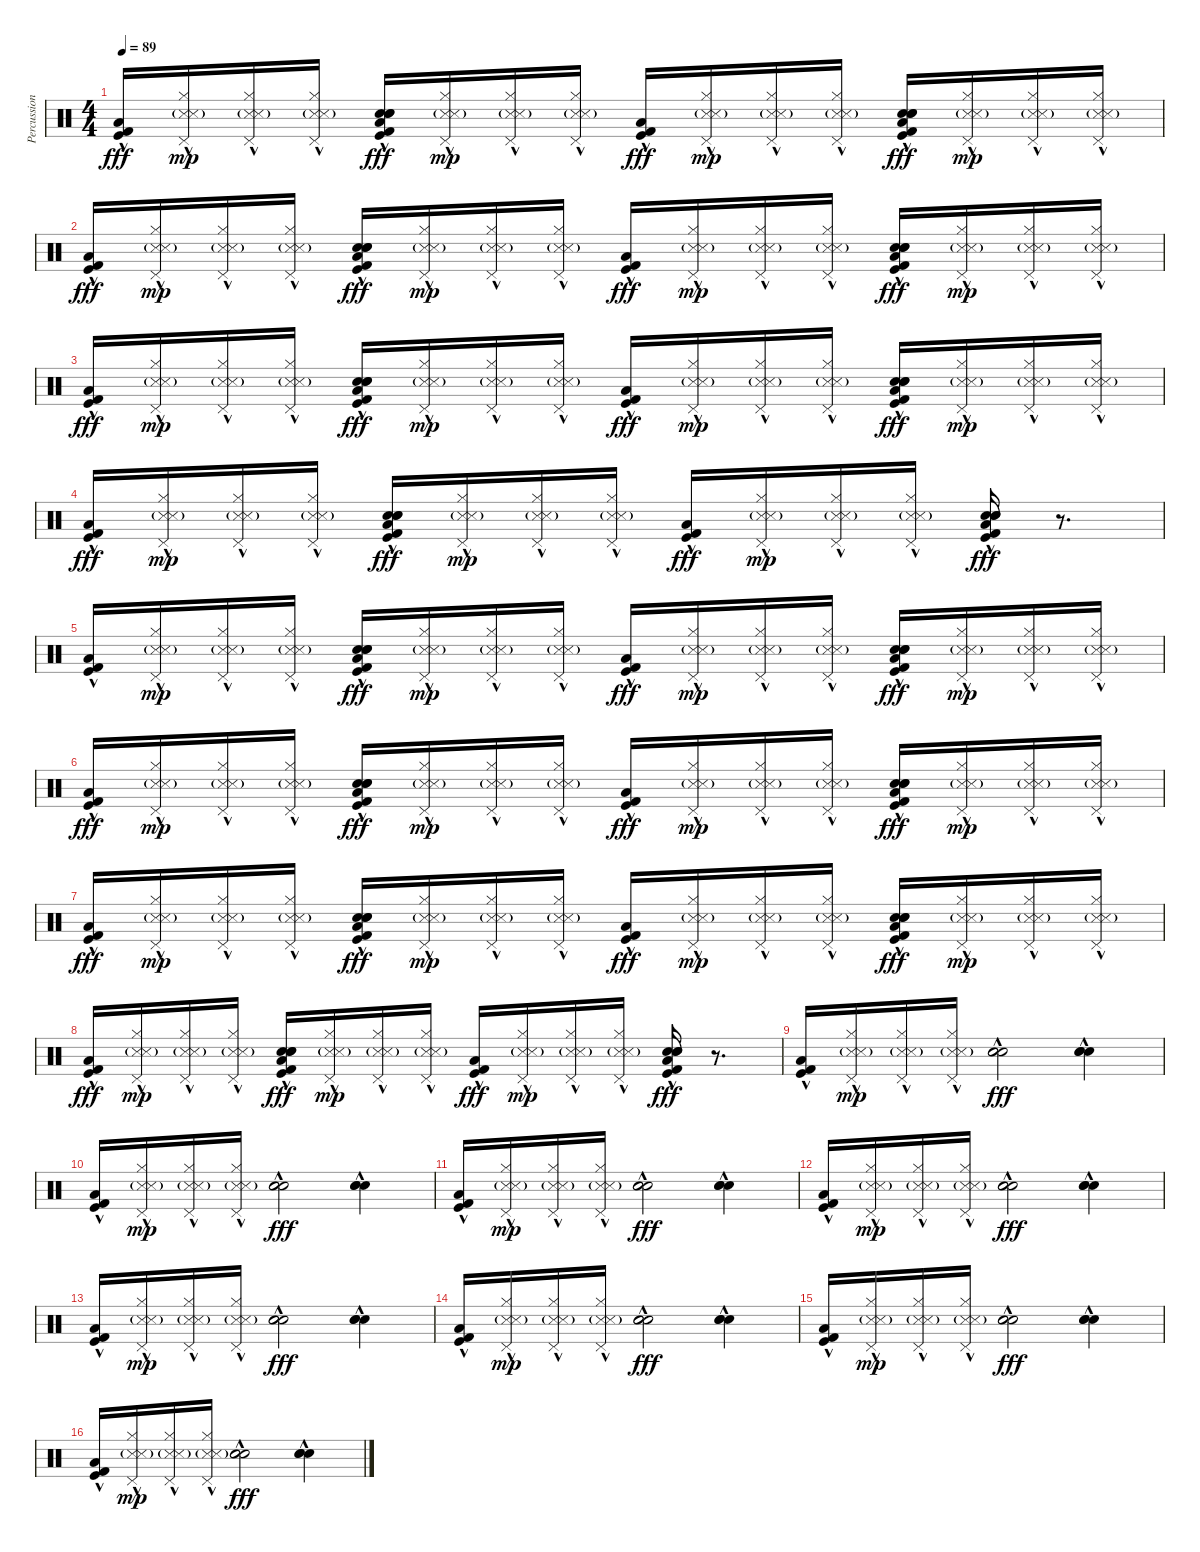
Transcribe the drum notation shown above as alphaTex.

\track ("Percussion" "Percussion") {instrument percussion}
\staff {score}
\articulation defaults
\ts (4 4)
\tempo 89
\clef neutral
\ks c
("Kick (hit) 2"{hac} "Kick (hit)"{hac} "Low Floor Tom (hit)"{hac}).16{dy fff} ("Pedal Hi-Hat (hit)"{hac} "Hi-Hat (closed)" "Snare (side stick) 3"{g} "Metronome (hit)"{g}).16{dy mp} ("Pedal Hi-Hat (hit)"{hac} "Hi-Hat (closed)" "Snare (side stick) 3"{g} "Metronome (hit)"{g}).16 ("Pedal Hi-Hat (hit)"{hac} "Hi-Hat (closed)" "Snare (side stick) 3"{g} "Metronome (hit)"{g}).16 ("Hand Clap (hit)"{hac} "Hand Clap (hit)"{hac} "Hand Clap (hit)"{hac} "Low Floor Tom (hit)"{hac} "Kick (hit)"{hac} "Kick (hit) 2"{hac}).16{dy fff} ("Pedal Hi-Hat (hit)"{hac} "Hi-Hat (closed)"{hac} "Snare (side stick) 3"{g} "Metronome (hit)"{g}).16{dy mp} ("Pedal Hi-Hat (hit)"{hac} "Hi-Hat (closed)"{hac} "Snare (side stick) 3"{g} "Metronome (hit)"{g}).16 ("Pedal Hi-Hat (hit)"{hac} "Hi-Hat (closed)"{hac} "Snare (side stick) 3"{g} "Metronome (hit)"{g}).16 ("Kick (hit) 2"{hac} "Kick (hit)"{hac} "Low Floor Tom (hit)"{hac}).16{dy fff} ("Pedal Hi-Hat (hit)"{hac} "Hi-Hat (closed)" "Snare (side stick) 3"{g} "Metronome (hit)"{g}).16{dy mp} ("Pedal Hi-Hat (hit)"{hac} "Hi-Hat (closed)" "Snare (side stick) 3"{g} "Metronome (hit)"{g}).16 ("Pedal Hi-Hat (hit)"{hac} "Hi-Hat (closed)" "Snare (side stick) 3"{g} "Metronome (hit)"{g}).16 ("Hand Clap (hit)"{hac} "Hand Clap (hit)"{hac} "Hand Clap (hit)"{hac} "Low Floor Tom (hit)"{hac} "Kick (hit)"{hac} "Kick (hit) 2"{hac}).16{dy fff} ("Pedal Hi-Hat (hit)"{hac} "Hi-Hat (closed)"{hac} "Snare (side stick) 3"{g} "Metronome (hit)"{g}).16{dy mp} ("Pedal Hi-Hat (hit)"{hac} "Hi-Hat (closed)"{hac} "Snare (side stick) 3"{g} "Metronome (hit)"{g}).16 ("Pedal Hi-Hat (hit)"{hac} "Hi-Hat (closed)"{hac} "Snare (side stick) 3"{g} "Metronome (hit)"{g}).16 |
("Kick (hit) 2"{hac} "Kick (hit)"{hac} "Low Floor Tom (hit)"{hac}).16{dy fff} ("Pedal Hi-Hat (hit)"{hac} "Hi-Hat (closed)" "Snare (side stick) 3"{g} "Metronome (hit)"{g}).16{dy mp} ("Pedal Hi-Hat (hit)"{hac} "Hi-Hat (closed)" "Snare (side stick) 3"{g} "Metronome (hit)"{g}).16 ("Pedal Hi-Hat (hit)"{hac} "Hi-Hat (closed)" "Snare (side stick) 3"{g} "Metronome (hit)"{g}).16 ("Hand Clap (hit)"{hac} "Hand Clap (hit)"{hac} "Hand Clap (hit)"{hac} "Low Floor Tom (hit)"{hac} "Kick (hit)"{hac} "Kick (hit) 2"{hac}).16{dy fff} ("Pedal Hi-Hat (hit)"{hac} "Hi-Hat (closed)"{hac} "Snare (side stick) 3"{g} "Metronome (hit)"{g}).16{dy mp} ("Pedal Hi-Hat (hit)"{hac} "Hi-Hat (closed)"{hac} "Snare (side stick) 3"{g} "Metronome (hit)"{g}).16 ("Pedal Hi-Hat (hit)"{hac} "Hi-Hat (closed)"{hac} "Snare (side stick) 3"{g} "Metronome (hit)"{g}).16 ("Kick (hit) 2"{hac} "Kick (hit)"{hac} "Low Floor Tom (hit)"{hac}).16{dy fff} ("Pedal Hi-Hat (hit)"{hac} "Hi-Hat (closed)" "Snare (side stick) 3"{g} "Metronome (hit)"{g}).16{dy mp} ("Pedal Hi-Hat (hit)"{hac} "Hi-Hat (closed)" "Snare (side stick) 3"{g} "Metronome (hit)"{g}).16 ("Pedal Hi-Hat (hit)"{hac} "Hi-Hat (closed)" "Snare (side stick) 3"{g} "Metronome (hit)"{g}).16 ("Hand Clap (hit)"{hac} "Hand Clap (hit)"{hac} "Hand Clap (hit)"{hac} "Low Floor Tom (hit)"{hac} "Kick (hit)"{hac} "Kick (hit) 2"{hac}).16{dy fff} ("Pedal Hi-Hat (hit)"{hac} "Hi-Hat (closed)"{hac} "Snare (side stick) 3"{g} "Metronome (hit)"{g}).16{dy mp} ("Pedal Hi-Hat (hit)"{hac} "Hi-Hat (closed)"{hac} "Snare (side stick) 3"{g} "Metronome (hit)"{g}).16 ("Pedal Hi-Hat (hit)"{hac} "Hi-Hat (closed)"{hac} "Snare (side stick) 3"{g} "Metronome (hit)"{g}).16 |
("Kick (hit) 2"{hac} "Kick (hit)"{hac} "Low Floor Tom (hit)"{hac}).16{dy fff} ("Pedal Hi-Hat (hit)"{hac} "Hi-Hat (closed)" "Snare (side stick) 3"{g} "Metronome (hit)"{g}).16{dy mp} ("Pedal Hi-Hat (hit)"{hac} "Hi-Hat (closed)" "Snare (side stick) 3"{g} "Metronome (hit)"{g}).16 ("Pedal Hi-Hat (hit)"{hac} "Hi-Hat (closed)" "Snare (side stick) 3"{g} "Metronome (hit)"{g}).16 ("Hand Clap (hit)"{hac} "Hand Clap (hit)"{hac} "Hand Clap (hit)"{hac} "Low Floor Tom (hit)"{hac} "Kick (hit)"{hac} "Kick (hit) 2"{hac}).16{dy fff} ("Pedal Hi-Hat (hit)"{hac} "Hi-Hat (closed)"{hac} "Snare (side stick) 3"{g} "Metronome (hit)"{g}).16{dy mp} ("Pedal Hi-Hat (hit)"{hac} "Hi-Hat (closed)"{hac} "Snare (side stick) 3"{g} "Metronome (hit)"{g}).16 ("Pedal Hi-Hat (hit)"{hac} "Hi-Hat (closed)"{hac} "Snare (side stick) 3"{g} "Metronome (hit)"{g}).16 ("Kick (hit) 2"{hac} "Kick (hit)"{hac} "Low Floor Tom (hit)"{hac}).16{dy fff} ("Pedal Hi-Hat (hit)"{hac} "Hi-Hat (closed)" "Snare (side stick) 3"{g} "Metronome (hit)"{g}).16{dy mp} ("Pedal Hi-Hat (hit)"{hac} "Hi-Hat (closed)" "Snare (side stick) 3"{g} "Metronome (hit)"{g}).16 ("Pedal Hi-Hat (hit)"{hac} "Hi-Hat (closed)" "Snare (side stick) 3"{g} "Metronome (hit)"{g}).16 ("Hand Clap (hit)"{hac} "Hand Clap (hit)"{hac} "Hand Clap (hit)"{hac} "Low Floor Tom (hit)"{hac} "Kick (hit)"{hac} "Kick (hit) 2"{hac}).16{dy fff} ("Pedal Hi-Hat (hit)"{hac} "Hi-Hat (closed)"{hac} "Snare (side stick) 3"{g} "Metronome (hit)"{g}).16{dy mp} ("Pedal Hi-Hat (hit)"{hac} "Hi-Hat (closed)"{hac} "Snare (side stick) 3"{g} "Metronome (hit)"{g}).16 ("Pedal Hi-Hat (hit)"{hac} "Hi-Hat (closed)"{hac} "Snare (side stick) 3"{g} "Metronome (hit)"{g}).16 |
("Kick (hit) 2"{hac} "Kick (hit)"{hac} "Low Floor Tom (hit)"{hac}).16{dy fff} ("Pedal Hi-Hat (hit)"{hac} "Hi-Hat (closed)" "Snare (side stick) 3"{g} "Metronome (hit)"{g}).16{dy mp} ("Pedal Hi-Hat (hit)"{hac} "Hi-Hat (closed)" "Snare (side stick) 3"{g} "Metronome (hit)"{g}).16 ("Pedal Hi-Hat (hit)"{hac} "Hi-Hat (closed)" "Snare (side stick) 3"{g} "Metronome (hit)"{g}).16 ("Hand Clap (hit)"{hac} "Hand Clap (hit)"{hac} "Hand Clap (hit)"{hac} "Low Floor Tom (hit)"{hac} "Kick (hit)"{hac} "Kick (hit) 2"{hac}).16{dy fff} ("Pedal Hi-Hat (hit)"{hac} "Hi-Hat (closed)"{hac} "Snare (side stick) 3"{g} "Metronome (hit)"{g}).16{dy mp} ("Pedal Hi-Hat (hit)"{hac} "Hi-Hat (closed)"{hac} "Snare (side stick) 3"{g} "Metronome (hit)"{g}).16 ("Pedal Hi-Hat (hit)"{hac} "Hi-Hat (closed)"{hac} "Snare (side stick) 3"{g} "Metronome (hit)"{g}).16 ("Kick (hit) 2"{hac} "Kick (hit)"{hac} "Low Floor Tom (hit)"{hac}).16{dy fff} ("Pedal Hi-Hat (hit)"{hac} "Hi-Hat (closed)" "Snare (side stick) 3"{g} "Metronome (hit)"{g}).16{dy mp} ("Pedal Hi-Hat (hit)"{hac} "Hi-Hat (closed)" "Snare (side stick) 3"{g} "Metronome (hit)"{g}).16 ("Pedal Hi-Hat (hit)"{hac} "Hi-Hat (closed)" "Snare (side stick) 3"{g} "Metronome (hit)"{g}).16 ("Hand Clap (hit)"{hac} "Hand Clap (hit)"{hac} "Hand Clap (hit)"{hac} "Low Floor Tom (hit)"{hac} "Kick (hit)"{hac} "Kick (hit) 2"{hac}).16{dy fff} r.8{d} |
("Kick (hit) 2"{hac} "Kick (hit)"{hac} "Low Floor Tom (hit)"{hac}).16 ("Pedal Hi-Hat (hit)"{hac} "Hi-Hat (closed)" "Snare (side stick) 3"{g} "Metronome (hit)"{g}).16{dy mp} ("Pedal Hi-Hat (hit)"{hac} "Hi-Hat (closed)" "Snare (side stick) 3"{g} "Metronome (hit)"{g}).16 ("Pedal Hi-Hat (hit)"{hac} "Hi-Hat (closed)" "Snare (side stick) 3"{g} "Metronome (hit)"{g}).16 ("Hand Clap (hit)"{hac} "Hand Clap (hit)"{hac} "Hand Clap (hit)"{hac} "Low Floor Tom (hit)"{hac} "Kick (hit)"{hac} "Kick (hit) 2"{hac}).16{dy fff} ("Pedal Hi-Hat (hit)"{hac} "Hi-Hat (closed)"{hac} "Snare (side stick) 3"{g} "Metronome (hit)"{g}).16{dy mp} ("Pedal Hi-Hat (hit)"{hac} "Hi-Hat (closed)"{hac} "Snare (side stick) 3"{g} "Metronome (hit)"{g}).16 ("Pedal Hi-Hat (hit)"{hac} "Hi-Hat (closed)"{hac} "Snare (side stick) 3"{g} "Metronome (hit)"{g}).16 ("Kick (hit) 2"{hac} "Kick (hit)"{hac} "Low Floor Tom (hit)"{hac}).16{dy fff} ("Pedal Hi-Hat (hit)"{hac} "Hi-Hat (closed)" "Snare (side stick) 3"{g} "Metronome (hit)"{g}).16{dy mp} ("Pedal Hi-Hat (hit)"{hac} "Hi-Hat (closed)" "Snare (side stick) 3"{g} "Metronome (hit)"{g}).16 ("Pedal Hi-Hat (hit)"{hac} "Hi-Hat (closed)" "Snare (side stick) 3"{g} "Metronome (hit)"{g}).16 ("Hand Clap (hit)"{hac} "Hand Clap (hit)"{hac} "Hand Clap (hit)"{hac} "Low Floor Tom (hit)"{hac} "Kick (hit)"{hac} "Kick (hit) 2"{hac}).16{dy fff} ("Pedal Hi-Hat (hit)"{hac} "Hi-Hat (closed)"{hac} "Snare (side stick) 3"{g} "Metronome (hit)"{g}).16{dy mp} ("Pedal Hi-Hat (hit)"{hac} "Hi-Hat (closed)"{hac} "Snare (side stick) 3"{g} "Metronome (hit)"{g}).16 ("Pedal Hi-Hat (hit)"{hac} "Hi-Hat (closed)"{hac} "Snare (side stick) 3"{g} "Metronome (hit)"{g}).16 |
("Kick (hit) 2"{hac} "Kick (hit)"{hac} "Low Floor Tom (hit)"{hac}).16{dy fff} ("Pedal Hi-Hat (hit)"{hac} "Hi-Hat (closed)" "Snare (side stick) 3"{g} "Metronome (hit)"{g}).16{dy mp} ("Pedal Hi-Hat (hit)"{hac} "Hi-Hat (closed)" "Snare (side stick) 3"{g} "Metronome (hit)"{g}).16 ("Pedal Hi-Hat (hit)"{hac} "Hi-Hat (closed)" "Snare (side stick) 3"{g} "Metronome (hit)"{g}).16 ("Hand Clap (hit)"{hac} "Hand Clap (hit)"{hac} "Hand Clap (hit)"{hac} "Low Floor Tom (hit)"{hac} "Kick (hit)"{hac} "Kick (hit) 2"{hac}).16{dy fff} ("Pedal Hi-Hat (hit)"{hac} "Hi-Hat (closed)"{hac} "Snare (side stick) 3"{g} "Metronome (hit)"{g}).16{dy mp} ("Pedal Hi-Hat (hit)"{hac} "Hi-Hat (closed)"{hac} "Snare (side stick) 3"{g} "Metronome (hit)"{g}).16 ("Pedal Hi-Hat (hit)"{hac} "Hi-Hat (closed)"{hac} "Snare (side stick) 3"{g} "Metronome (hit)"{g}).16 ("Kick (hit) 2"{hac} "Kick (hit)"{hac} "Low Floor Tom (hit)"{hac}).16{dy fff} ("Pedal Hi-Hat (hit)"{hac} "Hi-Hat (closed)" "Snare (side stick) 3"{g} "Metronome (hit)"{g}).16{dy mp} ("Pedal Hi-Hat (hit)"{hac} "Hi-Hat (closed)" "Snare (side stick) 3"{g} "Metronome (hit)"{g}).16 ("Pedal Hi-Hat (hit)"{hac} "Hi-Hat (closed)" "Snare (side stick) 3"{g} "Metronome (hit)"{g}).16 ("Hand Clap (hit)"{hac} "Hand Clap (hit)"{hac} "Hand Clap (hit)"{hac} "Low Floor Tom (hit)"{hac} "Kick (hit)"{hac} "Kick (hit) 2"{hac}).16{dy fff} ("Pedal Hi-Hat (hit)"{hac} "Hi-Hat (closed)"{hac} "Snare (side stick) 3"{g} "Metronome (hit)"{g}).16{dy mp} ("Pedal Hi-Hat (hit)"{hac} "Hi-Hat (closed)"{hac} "Snare (side stick) 3"{g} "Metronome (hit)"{g}).16 ("Pedal Hi-Hat (hit)"{hac} "Hi-Hat (closed)"{hac} "Snare (side stick) 3"{g} "Metronome (hit)"{g}).16 |
("Kick (hit) 2"{hac} "Kick (hit)"{hac} "Low Floor Tom (hit)"{hac}).16{dy fff} ("Pedal Hi-Hat (hit)"{hac} "Hi-Hat (closed)" "Snare (side stick) 3"{g} "Metronome (hit)"{g}).16{dy mp} ("Pedal Hi-Hat (hit)"{hac} "Hi-Hat (closed)" "Snare (side stick) 3"{g} "Metronome (hit)"{g}).16 ("Pedal Hi-Hat (hit)"{hac} "Hi-Hat (closed)" "Snare (side stick) 3"{g} "Metronome (hit)"{g}).16 ("Hand Clap (hit)"{hac} "Hand Clap (hit)"{hac} "Hand Clap (hit)"{hac} "Low Floor Tom (hit)"{hac} "Kick (hit)"{hac} "Kick (hit) 2"{hac}).16{dy fff} ("Pedal Hi-Hat (hit)"{hac} "Hi-Hat (closed)"{hac} "Snare (side stick) 3"{g} "Metronome (hit)"{g}).16{dy mp} ("Pedal Hi-Hat (hit)"{hac} "Hi-Hat (closed)"{hac} "Snare (side stick) 3"{g} "Metronome (hit)"{g}).16 ("Pedal Hi-Hat (hit)"{hac} "Hi-Hat (closed)"{hac} "Snare (side stick) 3"{g} "Metronome (hit)"{g}).16 ("Kick (hit) 2"{hac} "Kick (hit)"{hac} "Low Floor Tom (hit)"{hac}).16{dy fff} ("Pedal Hi-Hat (hit)"{hac} "Hi-Hat (closed)" "Snare (side stick) 3"{g} "Metronome (hit)"{g}).16{dy mp} ("Pedal Hi-Hat (hit)"{hac} "Hi-Hat (closed)" "Snare (side stick) 3"{g} "Metronome (hit)"{g}).16 ("Pedal Hi-Hat (hit)"{hac} "Hi-Hat (closed)" "Snare (side stick) 3"{g} "Metronome (hit)"{g}).16 ("Hand Clap (hit)"{hac} "Hand Clap (hit)"{hac} "Hand Clap (hit)"{hac} "Low Floor Tom (hit)"{hac} "Kick (hit)"{hac} "Kick (hit) 2"{hac}).16{dy fff} ("Pedal Hi-Hat (hit)"{hac} "Hi-Hat (closed)"{hac} "Snare (side stick) 3"{g} "Metronome (hit)"{g}).16{dy mp} ("Pedal Hi-Hat (hit)"{hac} "Hi-Hat (closed)"{hac} "Snare (side stick) 3"{g} "Metronome (hit)"{g}).16 ("Pedal Hi-Hat (hit)"{hac} "Hi-Hat (closed)"{hac} "Snare (side stick) 3"{g} "Metronome (hit)"{g}).16 |
("Kick (hit) 2"{hac} "Kick (hit)"{hac} "Low Floor Tom (hit)"{hac}).16{dy fff} ("Pedal Hi-Hat (hit)"{hac} "Hi-Hat (closed)" "Snare (side stick) 3"{g} "Metronome (hit)"{g}).16{dy mp} ("Pedal Hi-Hat (hit)"{hac} "Hi-Hat (closed)" "Snare (side stick) 3"{g} "Metronome (hit)"{g}).16 ("Pedal Hi-Hat (hit)"{hac} "Hi-Hat (closed)" "Snare (side stick) 3"{g} "Metronome (hit)"{g}).16 ("Hand Clap (hit)"{hac} "Hand Clap (hit)"{hac} "Hand Clap (hit)"{hac} "Low Floor Tom (hit)"{hac} "Kick (hit)"{hac} "Kick (hit) 2"{hac}).16{dy fff} ("Pedal Hi-Hat (hit)"{hac} "Hi-Hat (closed)"{hac} "Snare (side stick) 3"{g} "Metronome (hit)"{g}).16{dy mp} ("Pedal Hi-Hat (hit)"{hac} "Hi-Hat (closed)"{hac} "Snare (side stick) 3"{g} "Metronome (hit)"{g}).16 ("Pedal Hi-Hat (hit)"{hac} "Hi-Hat (closed)"{hac} "Snare (side stick) 3"{g} "Metronome (hit)"{g}).16 ("Kick (hit) 2"{hac} "Kick (hit)"{hac} "Low Floor Tom (hit)"{hac}).16{dy fff} ("Pedal Hi-Hat (hit)"{hac} "Hi-Hat (closed)" "Snare (side stick) 3"{g} "Metronome (hit)"{g}).16{dy mp} ("Pedal Hi-Hat (hit)"{hac} "Hi-Hat (closed)" "Snare (side stick) 3"{g} "Metronome (hit)"{g}).16 ("Pedal Hi-Hat (hit)"{hac} "Hi-Hat (closed)" "Snare (side stick) 3"{g} "Metronome (hit)"{g}).16 ("Hand Clap (hit)"{hac} "Hand Clap (hit)"{hac} "Hand Clap (hit)"{hac} "Low Floor Tom (hit)"{hac} "Kick (hit)"{hac} "Kick (hit) 2"{hac}).16{dy fff} r.8{d} |
("Kick (hit) 2"{hac} "Kick (hit)"{hac} "Low Floor Tom (hit)"{hac}).16 ("Pedal Hi-Hat (hit)"{hac} "Hi-Hat (closed)" "Snare (side stick) 3"{g} "Metronome (hit)"{g}).16{dy mp} ("Pedal Hi-Hat (hit)"{hac} "Hi-Hat (closed)" "Snare (side stick) 3"{g} "Metronome (hit)"{g}).16 ("Pedal Hi-Hat (hit)"{hac} "Hi-Hat (closed)" "Snare (side stick) 3"{g} "Metronome (hit)"{g}).16 ("Hand Clap (hit)"{hac} "Hand Clap (hit)"{hac} "Hand Clap (hit)"{hac}).2{dy fff} ("Hand Clap (hit)"{hac} "Hand Clap (hit)"{hac} "Hand Clap (hit)"{hac}).4 |
("Kick (hit) 2"{hac} "Kick (hit)"{hac} "Low Floor Tom (hit)"{hac}).16 ("Pedal Hi-Hat (hit)"{hac} "Hi-Hat (closed)" "Snare (side stick) 3"{g} "Metronome (hit)"{g}).16{dy mp} ("Pedal Hi-Hat (hit)"{hac} "Hi-Hat (closed)" "Snare (side stick) 3"{g} "Metronome (hit)"{g}).16 ("Pedal Hi-Hat (hit)"{hac} "Hi-Hat (closed)" "Snare (side stick) 3"{g} "Metronome (hit)"{g}).16 ("Hand Clap (hit)"{hac} "Hand Clap (hit)"{hac} "Hand Clap (hit)"{hac}).2{dy fff} ("Hand Clap (hit)"{hac} "Hand Clap (hit)"{hac} "Hand Clap (hit)"{hac}).4 |
("Kick (hit) 2"{hac} "Kick (hit)"{hac} "Low Floor Tom (hit)"{hac}).16 ("Pedal Hi-Hat (hit)"{hac} "Hi-Hat (closed)" "Snare (side stick) 3"{g} "Metronome (hit)"{g}).16{dy mp} ("Pedal Hi-Hat (hit)"{hac} "Hi-Hat (closed)" "Snare (side stick) 3"{g} "Metronome (hit)"{g}).16 ("Pedal Hi-Hat (hit)"{hac} "Hi-Hat (closed)" "Snare (side stick) 3"{g} "Metronome (hit)"{g}).16 ("Hand Clap (hit)"{hac} "Hand Clap (hit)"{hac} "Hand Clap (hit)"{hac}).2{dy fff} ("Hand Clap (hit)"{hac} "Hand Clap (hit)"{hac} "Hand Clap (hit)"{hac}).4 |
("Kick (hit) 2"{hac} "Kick (hit)"{hac} "Low Floor Tom (hit)"{hac}).16 ("Pedal Hi-Hat (hit)"{hac} "Hi-Hat (closed)" "Snare (side stick) 3"{g} "Metronome (hit)"{g}).16{dy mp} ("Pedal Hi-Hat (hit)"{hac} "Hi-Hat (closed)" "Snare (side stick) 3"{g} "Metronome (hit)"{g}).16 ("Pedal Hi-Hat (hit)"{hac} "Hi-Hat (closed)" "Snare (side stick) 3"{g} "Metronome (hit)"{g}).16 ("Hand Clap (hit)"{hac} "Hand Clap (hit)"{hac} "Hand Clap (hit)"{hac}).2{dy fff} ("Hand Clap (hit)"{hac} "Hand Clap (hit)"{hac} "Hand Clap (hit)"{hac}).4 |
("Kick (hit) 2"{hac} "Kick (hit)"{hac} "Low Floor Tom (hit)"{hac}).16 ("Pedal Hi-Hat (hit)"{hac} "Hi-Hat (closed)" "Snare (side stick) 3"{g} "Metronome (hit)"{g}).16{dy mp} ("Pedal Hi-Hat (hit)"{hac} "Hi-Hat (closed)" "Snare (side stick) 3"{g} "Metronome (hit)"{g}).16 ("Pedal Hi-Hat (hit)"{hac} "Hi-Hat (closed)" "Snare (side stick) 3"{g} "Metronome (hit)"{g}).16 ("Hand Clap (hit)"{hac} "Hand Clap (hit)"{hac} "Hand Clap (hit)"{hac}).2{dy fff} ("Hand Clap (hit)"{hac} "Hand Clap (hit)"{hac} "Hand Clap (hit)"{hac}).4 |
("Kick (hit) 2"{hac} "Kick (hit)"{hac} "Low Floor Tom (hit)"{hac}).16 ("Pedal Hi-Hat (hit)"{hac} "Hi-Hat (closed)" "Snare (side stick) 3"{g} "Metronome (hit)"{g}).16{dy mp} ("Pedal Hi-Hat (hit)"{hac} "Hi-Hat (closed)" "Snare (side stick) 3"{g} "Metronome (hit)"{g}).16 ("Pedal Hi-Hat (hit)"{hac} "Hi-Hat (closed)" "Snare (side stick) 3"{g} "Metronome (hit)"{g}).16 ("Hand Clap (hit)"{hac} "Hand Clap (hit)"{hac} "Hand Clap (hit)"{hac}).2{dy fff} ("Hand Clap (hit)"{hac} "Hand Clap (hit)"{hac} "Hand Clap (hit)"{hac}).4 |
("Kick (hit) 2"{hac} "Kick (hit)"{hac} "Low Floor Tom (hit)"{hac}).16 ("Pedal Hi-Hat (hit)"{hac} "Hi-Hat (closed)" "Snare (side stick) 3"{g} "Metronome (hit)"{g}).16{dy mp} ("Pedal Hi-Hat (hit)"{hac} "Hi-Hat (closed)" "Snare (side stick) 3"{g} "Metronome (hit)"{g}).16 ("Pedal Hi-Hat (hit)"{hac} "Hi-Hat (closed)" "Snare (side stick) 3"{g} "Metronome (hit)"{g}).16 ("Hand Clap (hit)"{hac} "Hand Clap (hit)"{hac} "Hand Clap (hit)"{hac}).2{dy fff} ("Hand Clap (hit)"{hac} "Hand Clap (hit)"{hac} "Hand Clap (hit)"{hac}).4 |
("Kick (hit) 2"{hac} "Kick (hit)"{hac} "Low Floor Tom (hit)"{hac}).16 ("Pedal Hi-Hat (hit)"{hac} "Hi-Hat (closed)" "Snare (side stick) 3"{g} "Metronome (hit)"{g}).16{dy mp} ("Pedal Hi-Hat (hit)"{hac} "Hi-Hat (closed)" "Snare (side stick) 3"{g} "Metronome (hit)"{g}).16 ("Pedal Hi-Hat (hit)"{hac} "Hi-Hat (closed)" "Snare (side stick) 3"{g} "Metronome (hit)"{g}).16 ("Hand Clap (hit)"{hac} "Hand Clap (hit)"{hac} "Hand Clap (hit)"{hac}).2{dy fff} ("Hand Clap (hit)"{hac} "Hand Clap (hit)"{hac} "Hand Clap (hit)"{hac}).4
